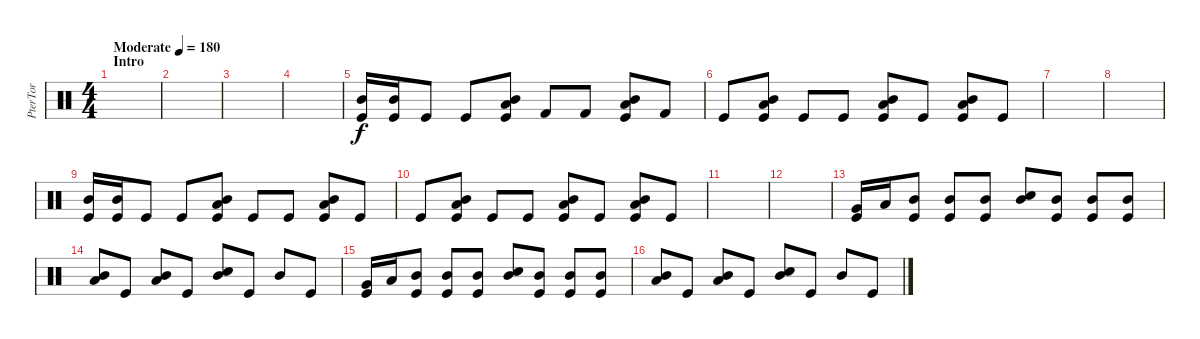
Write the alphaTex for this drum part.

\track ("PterTor" "PterTor") {instrument percussion}
\staff {score}
\articulation defaults
\ts (4 4)
\section ("" "Intro")
\tempo (180 "Moderate")
\clef neutral
\ks c
|
|
|
|
("Mid Tom (hit)" "Kick (hit)").16 ("Mid Tom (hit)" "Kick (hit)").16 "Kick (hit)".8 "Kick (hit)".8 ("Low Tom (hit)" "Mid Tom (hit)" "Kick (hit)").8 "Kick (hit) 2".8 "Kick (hit) 2".8 ("Low Tom (hit)" "Mid Tom (hit)" "Kick (hit)").8 "Kick (hit) 2".8 |
"Kick (hit)".8 ("Low Tom (hit)" "Mid Tom (hit)" "Kick (hit)").8 "Kick (hit)".8 "Kick (hit)".8 ("Low Tom (hit)" "Mid Tom (hit)" "Kick (hit)").8 "Kick (hit)".8 ("Low Tom (hit)" "Mid Tom (hit)" "Kick (hit)").8 "Kick (hit)".8 |
|
|
("Mid Tom (hit)" "Kick (hit)").16 ("Mid Tom (hit)" "Kick (hit)").16 "Kick (hit)".8 "Kick (hit)".8 ("Low Tom (hit)" "Mid Tom (hit)" "Kick (hit)").8 "Kick (hit)".8 "Kick (hit)".8 ("Low Tom (hit)" "Mid Tom (hit)" "Kick (hit)").8 "Kick (hit)".8 |
"Kick (hit)".8 ("Low Tom (hit)" "Mid Tom (hit)" "Kick (hit)").8 "Kick (hit)".8 "Kick (hit)".8 ("Low Tom (hit)" "Mid Tom (hit)" "Kick (hit)").8 "Kick (hit)".8 ("Low Tom (hit)" "Mid Tom (hit)" "Kick (hit)").8 "Kick (hit)".8 |
|
|
("Very Low Tom (hit)" "Kick (hit)").16 "Low Tom (hit)".16 ("Mid Tom (hit)" "Kick (hit)").8 ("Mid Tom (hit)" "Kick (hit)").8 ("Mid Tom (hit)" "Kick (hit)").8 ("Electric Snare (hit)" "Mid Tom (hit)").8 ("Mid Tom (hit)" "Kick (hit)").8 ("Mid Tom (hit)" "Kick (hit)").8 ("Mid Tom (hit)" "Kick (hit)").8 |
("Low Tom (hit)" "Mid Tom (hit)").8 "Kick (hit)".8 ("Low Tom (hit)" "Mid Tom (hit)").8 "Kick (hit)".8 ("Snare (hit) 2" "Mid Tom (hit)").8 "Kick (hit)".8 "Mid Tom (hit)".8 "Kick (hit)".8 |
("Very Low Tom (hit)" "Kick (hit)").16 "Low Tom (hit)".16 ("Mid Tom (hit)" "Kick (hit)").8 ("Mid Tom (hit)" "Kick (hit)").8 ("Mid Tom (hit)" "Kick (hit)").8 ("Electric Snare (hit)" "Mid Tom (hit)").8 ("Mid Tom (hit)" "Kick (hit)").8 ("Mid Tom (hit)" "Kick (hit)").8 ("Mid Tom (hit)" "Kick (hit)").8 |
("Low Tom (hit)" "Mid Tom (hit)").8 "Kick (hit)".8 ("Low Tom (hit)" "Mid Tom (hit)").8 "Kick (hit)".8 ("Snare (hit) 2" "Mid Tom (hit)").8 "Kick (hit)".8 "Mid Tom (hit)".8 "Kick (hit)".8
